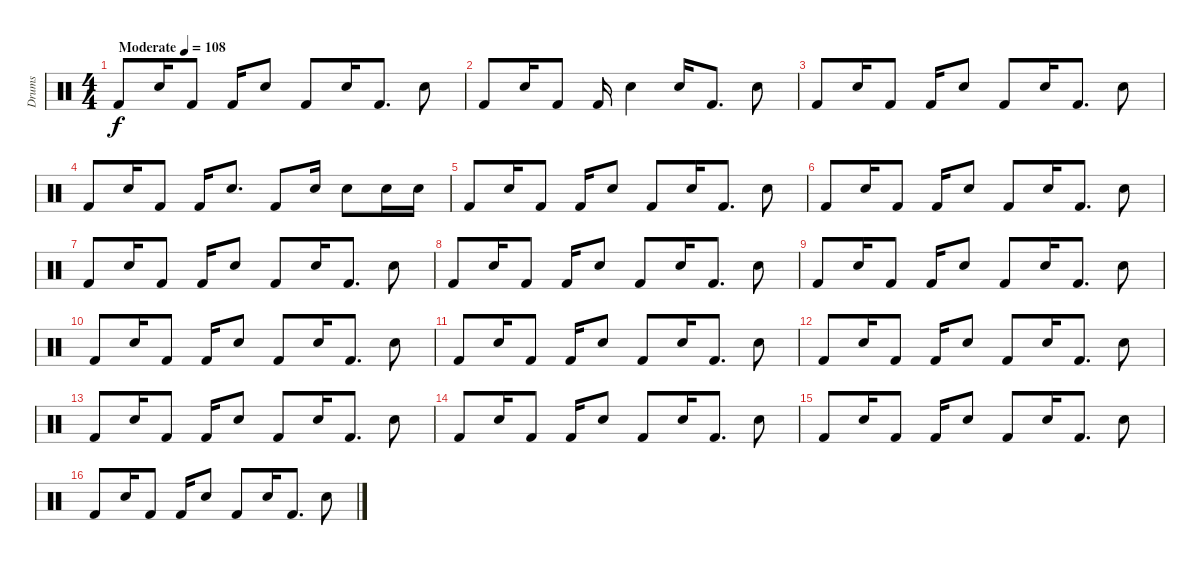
\track ("Drums" "Drums") {instrument percussion}
\staff {score}
\articulation defaults
\ts (4 4)
\tempo (108 "Moderate")
\clef neutral
\ks c "Kick (hit) 2".8{dy f} "Electric Snare (hit)".16 "Kick (hit) 2".8 "Kick (hit) 2".16 "Electric Snare (hit)".8 "Kick (hit) 2".8 "Electric Snare (hit)".16 "Kick (hit) 2".8{d} "Electric Snare (hit)".8
|
"Kick (hit) 2".8 "Electric Snare (hit)".16 "Kick (hit) 2".8 "Kick (hit) 2".16 "Electric Snare (hit)".4 "Electric Snare (hit)".16 "Kick (hit) 2".8{d} "Electric Snare (hit)".8 |
"Kick (hit) 2".8 "Electric Snare (hit)".16 "Kick (hit) 2".8 "Kick (hit) 2".16 "Electric Snare (hit)".8 "Kick (hit) 2".8 "Electric Snare (hit)".16 "Kick (hit) 2".8{d} "Electric Snare (hit)".8 |
"Kick (hit) 2".8 "Electric Snare (hit)".16 "Kick (hit) 2".8 "Kick (hit) 2".16 "Electric Snare (hit)".8{d} "Kick (hit) 2".8 "Electric Snare (hit)".16 "Electric Snare (hit)".8 "Electric Snare (hit)".16 "Electric Snare (hit)".16 |
"Kick (hit) 2".8 "Electric Snare (hit)".16 "Kick (hit) 2".8 "Kick (hit) 2".16 "Electric Snare (hit)".8 "Kick (hit) 2".8 "Electric Snare (hit)".16 "Kick (hit) 2".8{d} "Electric Snare (hit)".8 |
"Kick (hit) 2".8 "Electric Snare (hit)".16 "Kick (hit) 2".8 "Kick (hit) 2".16 "Electric Snare (hit)".8 "Kick (hit) 2".8 "Electric Snare (hit)".16 "Kick (hit) 2".8{d} "Electric Snare (hit)".8 |
"Kick (hit) 2".8 "Electric Snare (hit)".16 "Kick (hit) 2".8 "Kick (hit) 2".16 "Electric Snare (hit)".8 "Kick (hit) 2".8 "Electric Snare (hit)".16 "Kick (hit) 2".8{d} "Electric Snare (hit)".8 |
"Kick (hit) 2".8 "Electric Snare (hit)".16 "Kick (hit) 2".8 "Kick (hit) 2".16 "Electric Snare (hit)".8 "Kick (hit) 2".8 "Electric Snare (hit)".16 "Kick (hit) 2".8{d} "Electric Snare (hit)".8 |
"Kick (hit) 2".8 "Electric Snare (hit)".16 "Kick (hit) 2".8 "Kick (hit) 2".16 "Electric Snare (hit)".8 "Kick (hit) 2".8 "Electric Snare (hit)".16 "Kick (hit) 2".8{d} "Electric Snare (hit)".8 |
"Kick (hit) 2".8 "Electric Snare (hit)".16 "Kick (hit) 2".8 "Kick (hit) 2".16 "Electric Snare (hit)".8 "Kick (hit) 2".8 "Electric Snare (hit)".16 "Kick (hit) 2".8{d} "Electric Snare (hit)".8 |
"Kick (hit) 2".8 "Electric Snare (hit)".16 "Kick (hit) 2".8 "Kick (hit) 2".16 "Electric Snare (hit)".8 "Kick (hit) 2".8 "Electric Snare (hit)".16 "Kick (hit) 2".8{d} "Electric Snare (hit)".8 |
"Kick (hit) 2".8 "Electric Snare (hit)".16 "Kick (hit) 2".8 "Kick (hit) 2".16 "Electric Snare (hit)".8 "Kick (hit) 2".8 "Electric Snare (hit)".16 "Kick (hit) 2".8{d} "Electric Snare (hit)".8 |
"Kick (hit) 2".8 "Electric Snare (hit)".16 "Kick (hit) 2".8 "Kick (hit) 2".16 "Electric Snare (hit)".8 "Kick (hit) 2".8 "Electric Snare (hit)".16 "Kick (hit) 2".8{d} "Electric Snare (hit)".8 |
"Kick (hit) 2".8 "Electric Snare (hit)".16 "Kick (hit) 2".8 "Kick (hit) 2".16 "Electric Snare (hit)".8 "Kick (hit) 2".8 "Electric Snare (hit)".16 "Kick (hit) 2".8{d} "Electric Snare (hit)".8 |
"Kick (hit) 2".8 "Electric Snare (hit)".16 "Kick (hit) 2".8 "Kick (hit) 2".16 "Electric Snare (hit)".8 "Kick (hit) 2".8 "Electric Snare (hit)".16 "Kick (hit) 2".8{d} "Electric Snare (hit)".8 |
"Kick (hit) 2".8 "Electric Snare (hit)".16 "Kick (hit) 2".8 "Kick (hit) 2".16 "Electric Snare (hit)".8 "Kick (hit) 2".8 "Electric Snare (hit)".16 "Kick (hit) 2".8{d} "Electric Snare (hit)".8
